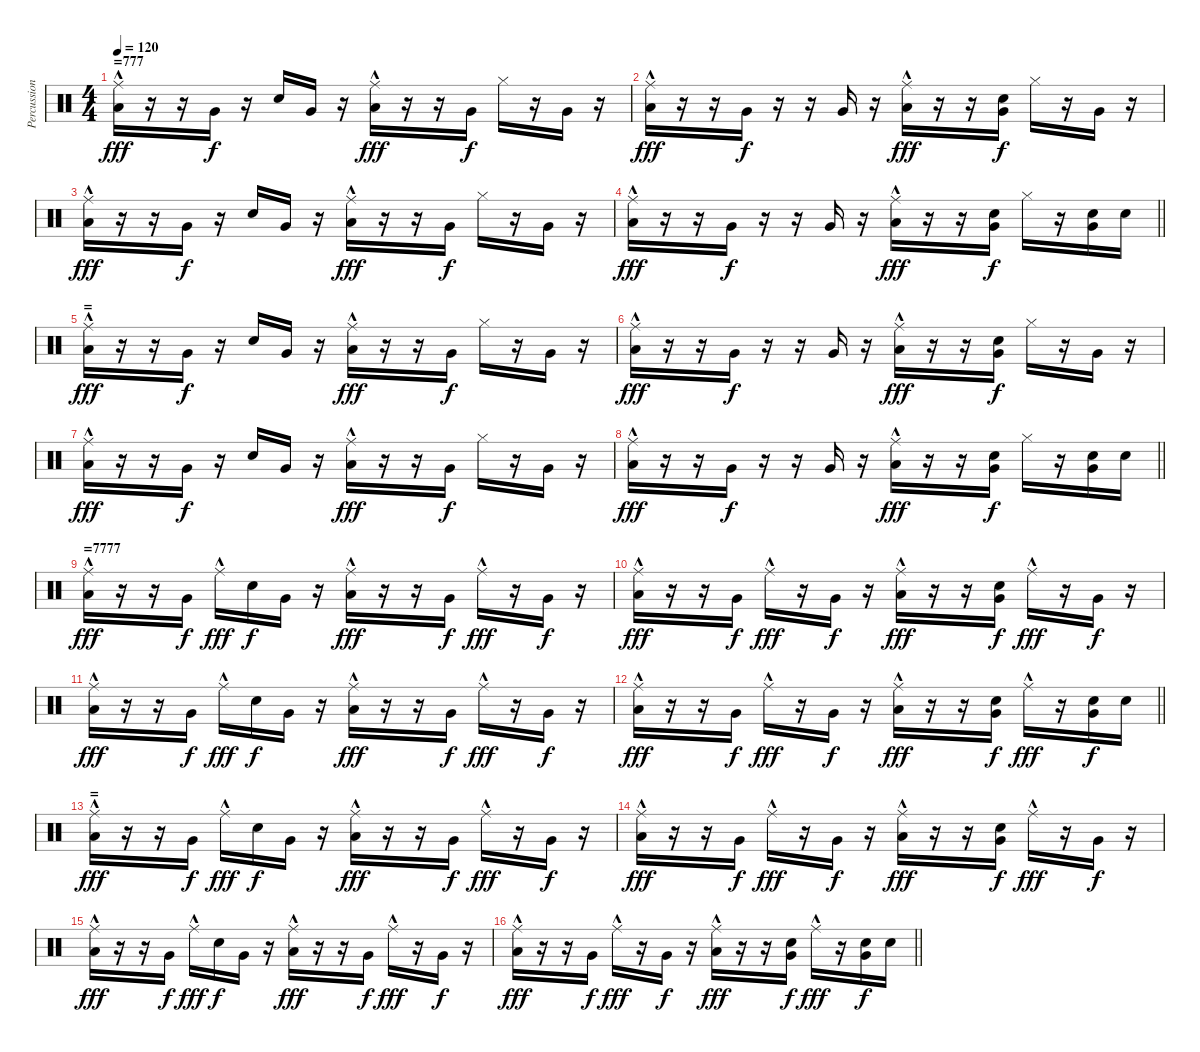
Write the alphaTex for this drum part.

\track ("Percussion" "Percussion") {instrument percussion}
\staff {score}
\articulation defaults
\ts (4 4)
\section ("" "=777")
\tempo 120
\clef neutral
\ks c
("Low Floor Tom (hit)" "Ride (middle)"{hac}).16{dy fff} r.16 r.16 "Very Low Tom (hit)".16{dy f} r.16 "Electric Snare (hit)".16 "Very Low Tom (hit)".16 r.16 ("Low Floor Tom (hit)" "Ride (middle)"{hac}).16{dy fff} r.16 r.16 "Very Low Tom (hit)".16{dy f} "Hi-Hat (closed)".16 r.16 "Very Low Tom (hit)".16 r.16 |
("Low Floor Tom (hit)" "Ride (middle)"{hac}).16{dy fff} r.16 r.16 "Very Low Tom (hit)".16{dy f} r.16 r.16 "Very Low Tom (hit)".16 r.16 ("Low Floor Tom (hit)" "Ride (middle)"{hac}).16{dy fff} r.16 r.16 ("Very Low Tom (hit)" "Electric Snare (hit)").16{dy f} "Hi-Hat (closed)".16 r.16 "Very Low Tom (hit)".16 r.16 |
("Low Floor Tom (hit)" "Ride (middle)"{hac}).16{dy fff} r.16 r.16 "Very Low Tom (hit)".16{dy f} r.16 "Electric Snare (hit)".16 "Very Low Tom (hit)".16 r.16 ("Low Floor Tom (hit)" "Ride (middle)"{hac}).16{dy fff} r.16 r.16 "Very Low Tom (hit)".16{dy f} "Hi-Hat (closed)".16 r.16 "Very Low Tom (hit)".16 r.16 |
\barLineRight lightlight
("Low Floor Tom (hit)" "Ride (middle)"{hac}).16{dy fff} r.16 r.16 "Very Low Tom (hit)".16{dy f} r.16 r.16 "Very Low Tom (hit)".16 r.16 ("Low Floor Tom (hit)" "Ride (middle)"{hac}).16{dy fff} r.16 r.16 ("Very Low Tom (hit)" "Electric Snare (hit)").16{dy f} "Hi-Hat (closed)".16 r.16 ("Very Low Tom (hit)" "Electric Snare (hit)").16 "Electric Snare (hit)".16 |
\section ("" "=")
("Low Floor Tom (hit)" "Ride (middle)"{hac}).16{dy fff} r.16 r.16 "Very Low Tom (hit)".16{dy f} r.16 "Electric Snare (hit)".16 "Very Low Tom (hit)".16 r.16 ("Low Floor Tom (hit)" "Ride (middle)"{hac}).16{dy fff} r.16 r.16 "Very Low Tom (hit)".16{dy f} "Hi-Hat (closed)".16 r.16 "Very Low Tom (hit)".16 r.16 |
("Low Floor Tom (hit)" "Ride (middle)"{hac}).16{dy fff} r.16 r.16 "Very Low Tom (hit)".16{dy f} r.16 r.16 "Very Low Tom (hit)".16 r.16 ("Low Floor Tom (hit)" "Ride (middle)"{hac}).16{dy fff} r.16 r.16 ("Very Low Tom (hit)" "Electric Snare (hit)").16{dy f} "Hi-Hat (closed)".16 r.16 "Very Low Tom (hit)".16 r.16 |
("Low Floor Tom (hit)" "Ride (middle)"{hac}).16{dy fff} r.16 r.16 "Very Low Tom (hit)".16{dy f} r.16 "Electric Snare (hit)".16 "Very Low Tom (hit)".16 r.16 ("Low Floor Tom (hit)" "Ride (middle)"{hac}).16{dy fff} r.16 r.16 "Very Low Tom (hit)".16{dy f} "Hi-Hat (closed)".16 r.16 "Very Low Tom (hit)".16 r.16 |
\barLineRight lightlight
("Low Floor Tom (hit)" "Ride (middle)"{hac}).16{dy fff} r.16 r.16 "Very Low Tom (hit)".16{dy f} r.16 r.16 "Very Low Tom (hit)".16 r.16 ("Low Floor Tom (hit)" "Ride (middle)"{hac}).16{dy fff} r.16 r.16 ("Very Low Tom (hit)" "Electric Snare (hit)").16{dy f} "Hi-Hat (closed)".16 r.16 ("Very Low Tom (hit)" "Electric Snare (hit)").16 "Electric Snare (hit)".16 |
\section ("" "=7777")
("Low Floor Tom (hit)" "Ride (middle)"{hac}).16{dy fff} r.16 r.16 "Very Low Tom (hit)".16{dy f} "Ride (middle)"{hac}.16{dy fff} "Electric Snare (hit)".16{dy f} "Very Low Tom (hit)".16 r.16 ("Low Floor Tom (hit)" "Ride (middle)"{hac}).16{dy fff} r.16 r.16 "Very Low Tom (hit)".16{dy f} "Ride (middle)"{hac}.16{dy fff} r.16 "Very Low Tom (hit)".16{dy f} r.16 |
("Low Floor Tom (hit)" "Ride (middle)"{hac}).16{dy fff} r.16 r.16 "Very Low Tom (hit)".16{dy f} "Ride (middle)"{hac}.16{dy fff} r.16 "Very Low Tom (hit)".16{dy f} r.16 ("Low Floor Tom (hit)" "Ride (middle)"{hac}).16{dy fff} r.16 r.16 ("Very Low Tom (hit)" "Electric Snare (hit)").16{dy f} "Ride (middle)"{hac}.16{dy fff} r.16 "Very Low Tom (hit)".16{dy f} r.16 |
("Low Floor Tom (hit)" "Ride (middle)"{hac}).16{dy fff} r.16 r.16 "Very Low Tom (hit)".16{dy f} "Ride (middle)"{hac}.16{dy fff} "Electric Snare (hit)".16{dy f} "Very Low Tom (hit)".16 r.16 ("Low Floor Tom (hit)" "Ride (middle)"{hac}).16{dy fff} r.16 r.16 "Very Low Tom (hit)".16{dy f} "Ride (middle)"{hac}.16{dy fff} r.16 "Very Low Tom (hit)".16{dy f} r.16 |
\barLineRight lightlight
("Low Floor Tom (hit)" "Ride (middle)"{hac}).16{dy fff} r.16 r.16 "Very Low Tom (hit)".16{dy f} "Ride (middle)"{hac}.16{dy fff} r.16 "Very Low Tom (hit)".16{dy f} r.16 ("Low Floor Tom (hit)" "Ride (middle)"{hac}).16{dy fff} r.16 r.16 ("Very Low Tom (hit)" "Electric Snare (hit)").16{dy f} "Ride (middle)"{hac}.16{dy fff} r.16 ("Very Low Tom (hit)" "Electric Snare (hit)").16{dy f} "Electric Snare (hit)".16 |
\section ("" "=")
("Low Floor Tom (hit)" "Ride (middle)"{hac}).16{dy fff} r.16 r.16 "Very Low Tom (hit)".16{dy f} "Ride (middle)"{hac}.16{dy fff} "Electric Snare (hit)".16{dy f} "Very Low Tom (hit)".16 r.16 ("Low Floor Tom (hit)" "Ride (middle)"{hac}).16{dy fff} r.16 r.16 "Very Low Tom (hit)".16{dy f} "Ride (middle)"{hac}.16{dy fff} r.16 "Very Low Tom (hit)".16{dy f} r.16 |
("Low Floor Tom (hit)" "Ride (middle)"{hac}).16{dy fff} r.16 r.16 "Very Low Tom (hit)".16{dy f} "Ride (middle)"{hac}.16{dy fff} r.16 "Very Low Tom (hit)".16{dy f} r.16 ("Low Floor Tom (hit)" "Ride (middle)"{hac}).16{dy fff} r.16 r.16 ("Very Low Tom (hit)" "Electric Snare (hit)").16{dy f} "Ride (middle)"{hac}.16{dy fff} r.16 "Very Low Tom (hit)".16{dy f} r.16 |
("Low Floor Tom (hit)" "Ride (middle)"{hac}).16{dy fff} r.16 r.16 "Very Low Tom (hit)".16{dy f} "Ride (middle)"{hac}.16{dy fff} "Electric Snare (hit)".16{dy f} "Very Low Tom (hit)".16 r.16 ("Low Floor Tom (hit)" "Ride (middle)"{hac}).16{dy fff} r.16 r.16 "Very Low Tom (hit)".16{dy f} "Ride (middle)"{hac}.16{dy fff} r.16 "Very Low Tom (hit)".16{dy f} r.16 |
\barLineRight lightlight
("Low Floor Tom (hit)" "Ride (middle)"{hac}).16{dy fff} r.16 r.16 "Very Low Tom (hit)".16{dy f} "Ride (middle)"{hac}.16{dy fff} r.16 "Very Low Tom (hit)".16{dy f} r.16 ("Low Floor Tom (hit)" "Ride (middle)"{hac}).16{dy fff} r.16 r.16 ("Very Low Tom (hit)" "Electric Snare (hit)").16{dy f} "Ride (middle)"{hac}.16{dy fff} r.16 ("Very Low Tom (hit)" "Electric Snare (hit)").16{dy f} "Electric Snare (hit)".16
